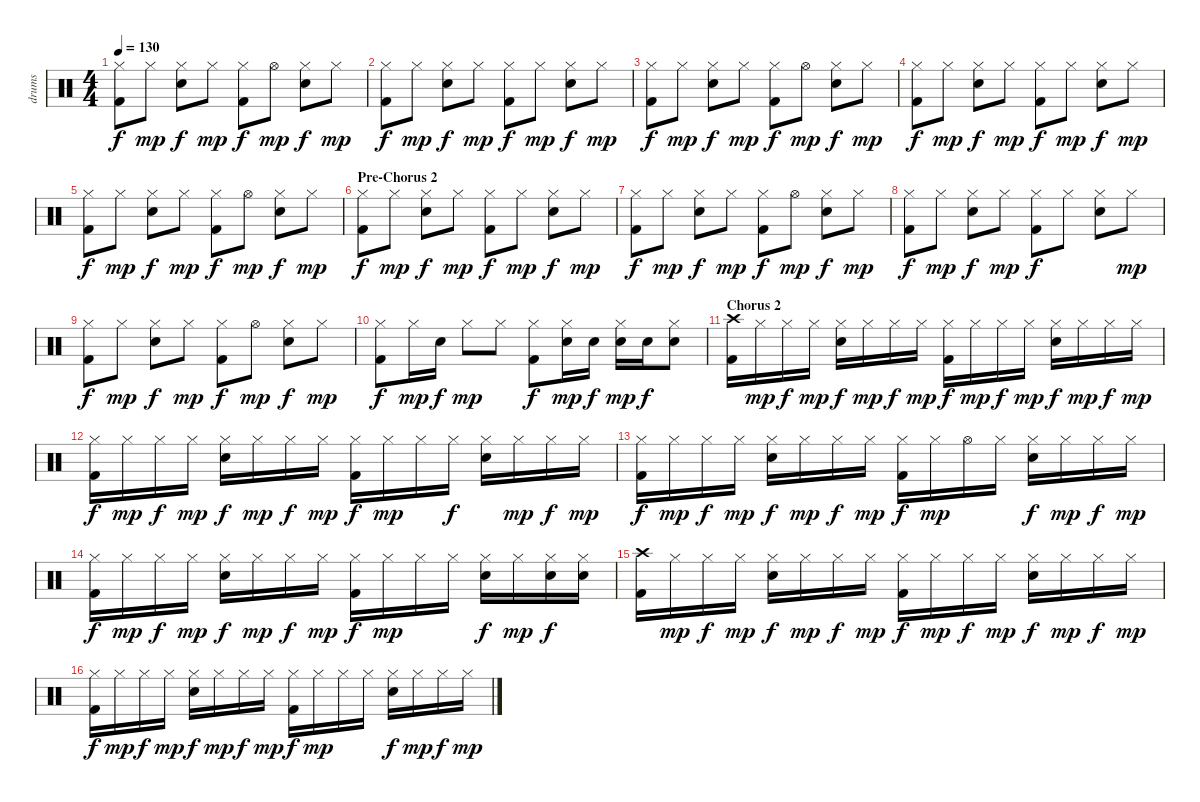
\track ("drums" "drums") {instrument percussion}
\staff {score}
\articulation defaults
\ts (4 4)
\tempo 130
\clef neutral
\ks c
("Hi-Hat (closed)" "Kick (hit) 2").8{dy f} "Hi-Hat (closed)".8{dy mp} ("Hi-Hat (closed)" "Electric Snare (hit)").8{dy f} "Hi-Hat (closed)".8{dy mp} ("Hi-Hat (closed)" "Kick (hit) 2").8{dy f} "Hi-Hat (open)".8{dy mp} ("Hi-Hat (closed)" "Electric Snare (hit)").8{dy f} "Hi-Hat (closed)".8{dy mp} |
("Hi-Hat (closed)" "Kick (hit) 2").8{dy f} "Hi-Hat (closed)".8{dy mp} ("Hi-Hat (closed)" "Electric Snare (hit)").8{dy f} "Hi-Hat (closed)".8{dy mp} ("Hi-Hat (closed)" "Kick (hit) 2").8{dy f} "Hi-Hat (closed)".8{dy mp} ("Hi-Hat (closed)" "Electric Snare (hit)").8{dy f} "Hi-Hat (closed)".8{dy mp} |
("Hi-Hat (closed)" "Kick (hit) 2").8{dy f} "Hi-Hat (closed)".8{dy mp} ("Hi-Hat (closed)" "Electric Snare (hit)").8{dy f} "Hi-Hat (closed)".8{dy mp} ("Hi-Hat (closed)" "Kick (hit) 2").8{dy f} "Hi-Hat (open)".8{dy mp} ("Hi-Hat (closed)" "Electric Snare (hit)").8{dy f} "Hi-Hat (closed)".8{dy mp} |
("Hi-Hat (closed)" "Kick (hit) 2").8{dy f} "Hi-Hat (closed)".8{dy mp} ("Hi-Hat (closed)" "Electric Snare (hit)").8{dy f} "Hi-Hat (closed)".8{dy mp} ("Hi-Hat (closed)" "Kick (hit) 2").8{dy f} "Hi-Hat (closed)".8{dy mp} ("Hi-Hat (closed)" "Electric Snare (hit)").8{dy f} "Hi-Hat (closed)".8{dy mp} |
("Hi-Hat (closed)" "Kick (hit) 2").8{dy f} "Hi-Hat (closed)".8{dy mp} ("Hi-Hat (closed)" "Electric Snare (hit)").8{dy f} "Hi-Hat (closed)".8{dy mp} ("Hi-Hat (closed)" "Kick (hit) 2").8{dy f} "Hi-Hat (open)".8{dy mp} ("Hi-Hat (closed)" "Electric Snare (hit)").8{dy f} "Hi-Hat (closed)".8{dy mp} |
\section ("" "Pre-Chorus 2")
("Hi-Hat (closed)" "Kick (hit) 2").8{dy f} "Hi-Hat (closed)".8{dy mp} ("Hi-Hat (closed)" "Electric Snare (hit)").8{dy f} "Hi-Hat (closed)".8{dy mp} ("Hi-Hat (closed)" "Kick (hit) 2").8{dy f} "Hi-Hat (closed)".8{dy mp} ("Hi-Hat (closed)" "Electric Snare (hit)").8{dy f} "Hi-Hat (closed)".8{dy mp} |
("Hi-Hat (closed)" "Kick (hit) 2").8{dy f} "Hi-Hat (closed)".8{dy mp} ("Hi-Hat (closed)" "Electric Snare (hit)").8{dy f} "Hi-Hat (closed)".8{dy mp} ("Hi-Hat (closed)" "Kick (hit) 2").8{dy f} "Hi-Hat (open)".8{dy mp} ("Hi-Hat (closed)" "Electric Snare (hit)").8{dy f} "Hi-Hat (closed)".8{dy mp} |
("Hi-Hat (closed)" "Kick (hit) 2").8{dy f} "Hi-Hat (closed)".8{dy mp} ("Hi-Hat (closed)" "Electric Snare (hit)").8{dy f} "Hi-Hat (closed)".8{dy mp} ("Hi-Hat (closed)" "Kick (hit) 2").8{dy f} "Hi-Hat (closed)".8 ("Hi-Hat (closed)" "Electric Snare (hit)").8 "Hi-Hat (closed)".8{dy mp} |
("Hi-Hat (closed)" "Kick (hit) 2").8{dy f} "Hi-Hat (closed)".8{dy mp} ("Hi-Hat (closed)" "Electric Snare (hit)").8{dy f} "Hi-Hat (closed)".8{dy mp} ("Hi-Hat (closed)" "Kick (hit) 2").8{dy f} "Hi-Hat (open)".8{dy mp} ("Hi-Hat (closed)" "Electric Snare (hit)").8{dy f} "Hi-Hat (closed)".8{dy mp} |
("Hi-Hat (closed)" "Kick (hit) 2").8{dy f} "Hi-Hat (closed)".16{dy mp} "Electric Snare (hit)".16{dy f} "Hi-Hat (closed)".8{dy mp} "Hi-Hat (closed)".8 ("Hi-Hat (closed)" "Kick (hit) 2").8{dy f} ("Hi-Hat (closed)" "Electric Snare (hit)").16{dy mp} "Electric Snare (hit)".16{dy f} ("Hi-Hat (closed)" "Electric Snare (hit)").16{dy mp} "Electric Snare (hit)".16{dy f} ("Hi-Hat (closed)" "Electric Snare (hit)").8 |
\section ("" "Chorus 2")
("Crash high (hit)" "Kick (hit) 2").16 "Hi-Hat (closed)".16{dy mp} "Hi-Hat (closed)".16{dy f} "Hi-Hat (closed)".16{dy mp} ("Hi-Hat (closed)" "Electric Snare (hit)").16{dy f} "Hi-Hat (closed)".16{dy mp} "Hi-Hat (closed)".16{dy f} "Hi-Hat (closed)".16{dy mp} ("Hi-Hat (closed)" "Kick (hit) 2").16{dy f} "Hi-Hat (closed)".16{dy mp} "Hi-Hat (closed)".16{dy f} "Hi-Hat (closed)".16{dy mp} ("Hi-Hat (closed)" "Electric Snare (hit)").16{dy f} "Hi-Hat (closed)".16{dy mp} "Hi-Hat (closed)".16{dy f} "Hi-Hat (closed)".16{dy mp} |
("Hi-Hat (closed)" "Kick (hit) 2").16{dy f} "Hi-Hat (closed)".16{dy mp} "Hi-Hat (closed)".16{dy f} "Hi-Hat (closed)".16{dy mp} ("Hi-Hat (closed)" "Electric Snare (hit)").16{dy f} "Hi-Hat (closed)".16{dy mp} "Hi-Hat (closed)".16{dy f} "Hi-Hat (closed)".16{dy mp} ("Hi-Hat (closed)" "Kick (hit) 2").16{dy f} "Hi-Hat (closed)".16{dy mp} "Hi-Hat (closed)".16 "Hi-Hat (closed)".16{dy f} ("Hi-Hat (closed)" "Electric Snare (hit)").16 "Hi-Hat (closed)".16{dy mp} "Hi-Hat (closed)".16{dy f} "Hi-Hat (closed)".16{dy mp} |
("Hi-Hat (closed)" "Kick (hit) 2").16{dy f} "Hi-Hat (closed)".16{dy mp} "Hi-Hat (closed)".16{dy f} "Hi-Hat (closed)".16{dy mp} ("Hi-Hat (closed)" "Electric Snare (hit)").16{dy f} "Hi-Hat (closed)".16{dy mp} "Hi-Hat (closed)".16{dy f} "Hi-Hat (closed)".16{dy mp} ("Hi-Hat (closed)" "Kick (hit) 2").16{dy f} "Hi-Hat (closed)".16{dy mp} "Hi-Hat (open)".16 "Hi-Hat (closed)".16 ("Hi-Hat (closed)" "Electric Snare (hit)").16{dy f} "Hi-Hat (closed)".16{dy mp} "Hi-Hat (closed)".16{dy f} "Hi-Hat (closed)".16{dy mp} |
("Hi-Hat (closed)" "Kick (hit) 2").16{dy f} "Hi-Hat (closed)".16{dy mp} "Hi-Hat (closed)".16{dy f} "Hi-Hat (closed)".16{dy mp} ("Hi-Hat (closed)" "Electric Snare (hit)").16{dy f} "Hi-Hat (closed)".16{dy mp} "Hi-Hat (closed)".16{dy f} "Hi-Hat (closed)".16{dy mp} ("Hi-Hat (closed)" "Kick (hit) 2").16{dy f} "Hi-Hat (closed)".16{dy mp} "Hi-Hat (closed)".16 "Hi-Hat (closed)".16 ("Hi-Hat (closed)" "Electric Snare (hit)").16{dy f} "Hi-Hat (closed)".16{dy mp} ("Hi-Hat (closed)" "Electric Snare (hit)").16{dy f} ("Hi-Hat (closed)" "Electric Snare (hit)").16 |
("Crash high (hit)" "Kick (hit) 2").16 "Hi-Hat (closed)".16{dy mp} "Hi-Hat (closed)".16{dy f} "Hi-Hat (closed)".16{dy mp} ("Hi-Hat (closed)" "Electric Snare (hit)").16{dy f} "Hi-Hat (closed)".16{dy mp} "Hi-Hat (closed)".16{dy f} "Hi-Hat (closed)".16{dy mp} ("Hi-Hat (closed)" "Kick (hit) 2").16{dy f} "Hi-Hat (closed)".16{dy mp} "Hi-Hat (closed)".16{dy f} "Hi-Hat (closed)".16{dy mp} ("Hi-Hat (closed)" "Electric Snare (hit)").16{dy f} "Hi-Hat (closed)".16{dy mp} "Hi-Hat (closed)".16{dy f} "Hi-Hat (closed)".16{dy mp} |
("Hi-Hat (closed)" "Kick (hit) 2").16{dy f} "Hi-Hat (closed)".16{dy mp} "Hi-Hat (closed)".16{dy f} "Hi-Hat (closed)".16{dy mp} ("Hi-Hat (closed)" "Electric Snare (hit)").16{dy f} "Hi-Hat (closed)".16{dy mp} "Hi-Hat (closed)".16{dy f} "Hi-Hat (closed)".16{dy mp} ("Hi-Hat (closed)" "Kick (hit) 2").16{dy f} "Hi-Hat (closed)".16{dy mp} "Hi-Hat (closed)".16 "Hi-Hat (closed)".16 ("Hi-Hat (closed)" "Electric Snare (hit)").16{dy f} "Hi-Hat (closed)".16{dy mp} "Hi-Hat (closed)".16{dy f} "Hi-Hat (closed)".16{dy mp}
